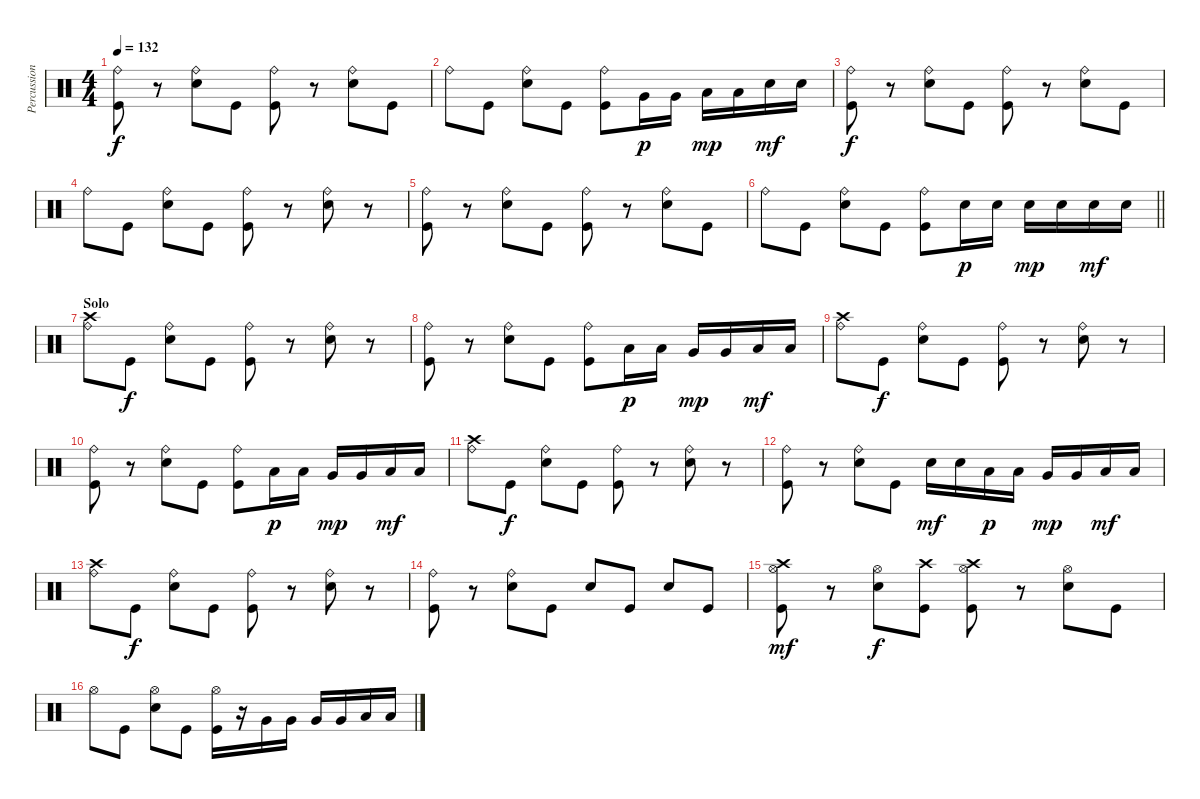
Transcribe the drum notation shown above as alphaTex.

\track ("Percussion" "Percussion") {instrument percussion}
\staff {score}
\articulation defaults
\ts (4 4)
\tempo 132
\clef neutral
\ks c
("Ride (bell)" "Kick (hit)").8{dy f} r.8 ("Ride (bell)" "Snare (hit) 2").8 "Kick (hit)".8 ("Ride (bell)" "Kick (hit)").8 r.8 ("Ride (bell)" "Snare (hit) 2").8 "Kick (hit)".8 |
"Ride (bell)".8 "Kick (hit)".8 ("Ride (bell)" "Snare (hit) 2").8 "Kick (hit)".8 ("Ride (bell)" "Kick (hit)").8 "Very Low Tom (hit)".16{dy p} "Very Low Tom (hit)".16 "Low Floor Tom (hit)".16{dy mp} "Low Floor Tom (hit)".16 "Snare (hit) 2".16{dy mf} "Snare (hit) 2".16 |
("Ride (bell)" "Kick (hit)").8{dy f} r.8 ("Ride (bell)" "Snare (hit) 2").8 "Kick (hit)".8 ("Ride (bell)" "Kick (hit)").8 r.8 ("Ride (bell)" "Snare (hit) 2").8 "Kick (hit)".8 |
"Ride (bell)".8 "Kick (hit)".8 ("Ride (bell)" "Snare (hit) 2").8 "Kick (hit)".8 ("Ride (bell)" "Kick (hit)").8 r.8 ("Ride (bell)" "Snare (hit) 2").8 r.8 |
("Ride (bell)" "Kick (hit)").8 r.8 ("Ride (bell)" "Snare (hit) 2").8 "Kick (hit)".8 ("Ride (bell)" "Kick (hit)").8 r.8 ("Ride (bell)" "Snare (hit) 2").8 "Kick (hit)".8 |
\barLineRight lightlight "Ride (bell)".8 "Kick (hit)".8
("Ride (bell)" "Snare (hit) 2").8 "Kick (hit)".8 ("Ride (bell)" "Kick (hit)").8 "Snare (hit) 2".16{dy p} "Snare (hit) 2".16 "Snare (hit) 2".16{dy mp} "Snare (hit) 2".16 "Snare (hit) 2".16{dy mf} "Snare (hit) 2".16 |
\section ("" "Solo")
("Crash high (hit)" "Ride (bell)").8 "Kick (hit)".8{dy f} ("Ride (bell)" "Snare (hit) 2").8 "Kick (hit)".8 ("Ride (bell)" "Kick (hit)").8 r.8 ("Ride (bell)" "Snare (hit) 2").8 r.8 |
("Ride (bell)" "Kick (hit)").8 r.8 ("Ride (bell)" "Snare (hit) 2").8 "Kick (hit)".8 ("Ride (bell)" "Kick (hit)").8 "Low Tom (hit)".16{dy p} "Low Tom (hit)".16 "Very Low Tom (hit)".16{dy mp} "Very Low Tom (hit)".16 "Low Floor Tom (hit)".16{dy mf} "Low Floor Tom (hit)".16 |
("Crash high (hit)" "Ride (bell)").8 "Kick (hit)".8{dy f} ("Ride (bell)" "Snare (hit) 2").8 "Kick (hit)".8 ("Ride (bell)" "Kick (hit)").8 r.8 ("Ride (bell)" "Snare (hit) 2").8 r.8 |
("Ride (bell)" "Kick (hit)").8 r.8 ("Ride (bell)" "Snare (hit) 2").8 "Kick (hit)".8 ("Ride (bell)" "Kick (hit)").8 "Low Tom (hit)".16{dy p} "Low Tom (hit)".16 "Very Low Tom (hit)".16{dy mp} "Very Low Tom (hit)".16 "Low Floor Tom (hit)".16{dy mf} "Low Floor Tom (hit)".16 |
("Crash high (hit)" "Ride (bell)").8 "Kick (hit)".8{dy f} ("Ride (bell)" "Snare (hit) 2").8 "Kick (hit)".8 ("Ride (bell)" "Kick (hit)").8 r.8 ("Ride (bell)" "Snare (hit) 2").8 r.8 |
("Ride (bell)" "Kick (hit)").8 r.8 ("Ride (bell)" "Snare (hit) 2").8 "Kick (hit)".8 "Snare (hit) 2".16{dy mf} "Snare (hit) 2".16 "Low Tom (hit)".16{dy p} "Low Tom (hit)".16 "Very Low Tom (hit)".16{dy mp} "Very Low Tom (hit)".16 "Low Floor Tom (hit)".16{dy mf} "Low Floor Tom (hit)".16 |
("Crash high (hit)" "Ride (bell)").8 "Kick (hit)".8{dy f} ("Ride (bell)" "Snare (hit) 2").8 "Kick (hit)".8 ("Ride (bell)" "Kick (hit)").8 r.8 ("Ride (bell)" "Snare (hit) 2").8 r.8 |
("Ride (bell)" "Kick (hit)").8 r.8 ("Ride (bell)" "Snare (hit) 2").8 "Kick (hit)".8 "Snare (hit) 2".8 "Kick (hit)".8 "Snare (hit) 2".8 "Kick (hit)".8 |
("Crash high (hit)" "Hi-Hat (open)" "Kick (hit)").8{dy mf} r.8 ("Hi-Hat (open)" "Snare (hit) 2").8{dy f} ("Crash high (hit)" "Kick (hit)").8 ("Crash high (hit)" "Hi-Hat (open)" "Kick (hit)").8 r.8 ("Hi-Hat (open)" "Snare (hit) 2").8 "Kick (hit)".8 |
"Hi-Hat (open)".8 "Kick (hit)".8 ("Hi-Hat (open)" "Snare (hit) 2").8 "Kick (hit)".8 ("Hi-Hat (open)" "Kick (hit)").16 r.16 "Very Low Tom (hit)".16 "Very Low Tom (hit)".16 "Very Low Tom (hit)".16 "Very Low Tom (hit)".16 "Low Floor Tom (hit)".16 "Low Floor Tom (hit)".16
